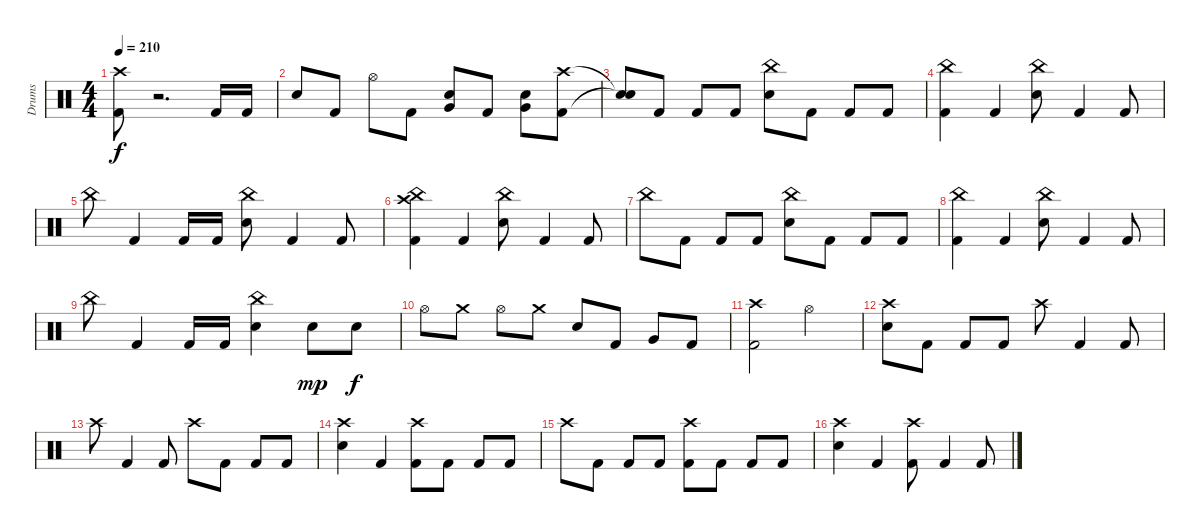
\track ("Drums" "Drums") {instrument percussion}
\staff {score}
\articulation defaults
\ts (4 4)
\tempo 210
\clef neutral
\ks c
("Crash high (hit)" "Kick (hit) 2").8{dy f} r.2{d volume 0} "Kick (hit) 2".16{volume 16} "Kick (hit) 2".16 |
"Electric Snare (hit)".8 "Kick (hit) 2".8 "Hi-Hat (open)".8 "Kick (hit) 2".8 ("Very Low Tom (hit)" "Electric Snare (hit)").8 "Kick (hit) 2".8 ("Very Low Tom (hit)" "Electric Snare (hit)").8 ("Crash high (hit)" "Kick (hit) 2").8 |
("Snare (hit)"{t} "Snare (hit)"{t}).8 "Kick (hit) 2".8 "Kick (hit) 2".8 "Kick (hit) 2".8 ("China (hit)" "Electric Snare (hit)").8 "Kick (hit) 2".8 "Kick (hit) 2".8 "Kick (hit) 2".8 |
("China (hit)" "Kick (hit) 2").4 "Kick (hit) 2".4 ("China (hit)" "Electric Snare (hit)").8 "Kick (hit) 2".4 "Kick (hit) 2".8 |
"China (hit)".8 "Kick (hit) 2".4 "Kick (hit) 2".16 "Kick (hit) 2".16 ("China (hit)" "Electric Snare (hit)").8 "Kick (hit) 2".4 "Kick (hit) 2".8 |
("China (hit)" "Crash high (hit)" "Kick (hit) 2").4 "Kick (hit) 2".4 ("China (hit)" "Electric Snare (hit)").8 "Kick (hit) 2".4 "Kick (hit) 2".8 |
"China (hit)".8 "Kick (hit) 2".8 "Kick (hit) 2".8 "Kick (hit) 2".8 ("China (hit)" "Electric Snare (hit)").8 "Kick (hit) 2".8 "Kick (hit) 2".8 "Kick (hit) 2".8 |
("China (hit)" "Kick (hit) 2").4 "Kick (hit) 2".4 ("China (hit)" "Electric Snare (hit)").8 "Kick (hit) 2".4 "Kick (hit) 2".8 |
"China (hit)".8 "Kick (hit) 2".4 "Kick (hit) 2".16 "Kick (hit) 2".16 ("China (hit)" "Electric Snare (hit)").4 "Electric Snare (hit)".8{dy mp} "Electric Snare (hit)".8{dy f} |
"Hi-Hat (open)".8 "Crash medium (hit)".8 "Hi-Hat (open)".8 "Crash medium (hit)".8 "Electric Snare (hit)".8 "Kick (hit) 2".8 "Very Low Tom (hit)".8 "Kick (hit) 2".8 |
("Crash high (hit)" "Kick (hit) 2").2 "Hi-Hat (open)".2 |
("Crash high (hit)" "Electric Snare (hit)").8 "Kick (hit) 2".8 "Kick (hit) 2".8 "Kick (hit) 2".8 "Crash high (hit)".8 "Kick (hit) 2".4 "Kick (hit) 2".8 |
"Crash high (hit)".8 "Kick (hit) 2".4 "Kick (hit) 2".8 "Crash high (hit)".8 "Kick (hit) 2".8 "Kick (hit) 2".8 "Kick (hit) 2".8 |
("Crash high (hit)" "Electric Snare (hit)").4 "Kick (hit) 2".4 ("Crash high (hit)" "Kick (hit) 2").8 "Kick (hit) 2".8 "Kick (hit) 2".8 "Kick (hit) 2".8 |
"Crash high (hit)".8 "Kick (hit) 2".8 "Kick (hit) 2".8 "Kick (hit) 2".8 ("Crash high (hit)" "Kick (hit) 2").8 "Kick (hit) 2".8 "Kick (hit) 2".8 "Kick (hit) 2".8 |
("Crash high (hit)" "Electric Snare (hit)").4 "Kick (hit) 2".4 ("Crash high (hit)" "Kick (hit) 2").8 "Kick (hit) 2".4 "Kick (hit) 2".8
